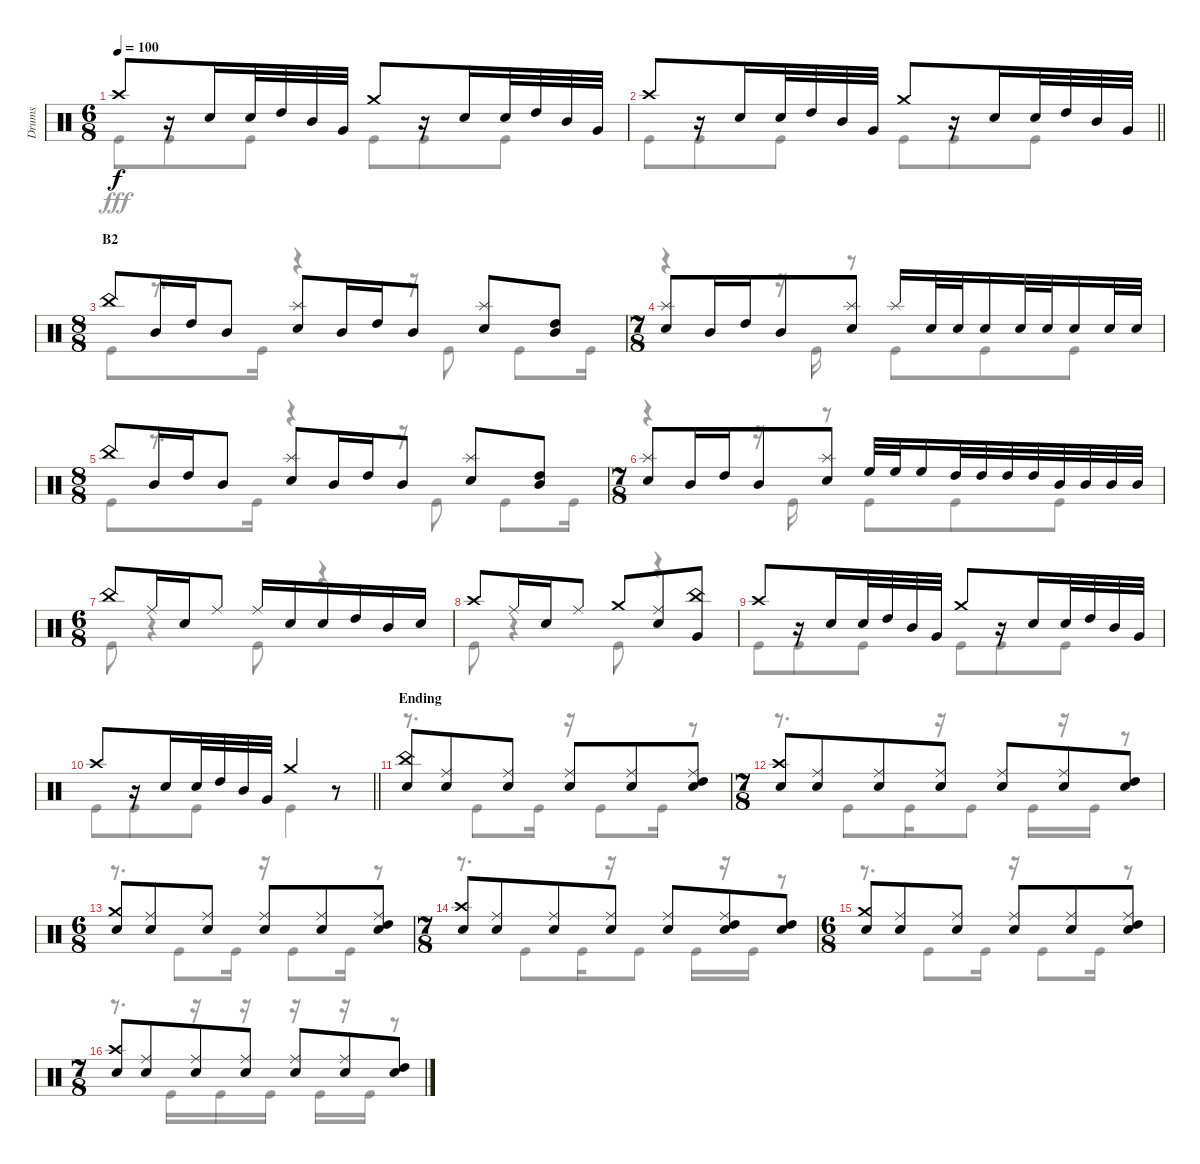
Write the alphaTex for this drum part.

\track ("Drums" "Drums") {instrument percussion}
\staff {score}
\articulation defaults
\voice
\ts (6 8)
\tempo 100
\clef neutral
\ks c "Crash high (hit)".8{dy f}
r.16 "Snare (hit) 2".16 "Snare (hit) 2".32 "High Tom (hit)".32 "Mid Tom (hit)".32 "Very Low Tom (hit)".32 "Crash medium (hit)".8 r.16 "Snare (hit) 2".16 "Snare (hit) 2".32 "High Tom (hit)".32 "Mid Tom (hit)".32 "Very Low Tom (hit)".32 |
\barLineRight lightlight "Crash high (hit)".8
r.16 "Snare (hit) 2".16 "Snare (hit) 2".32 "High Tom (hit)".32 "Mid Tom (hit)".32 "Very Low Tom (hit)".32 "Crash medium (hit)".8 r.16 "Snare (hit) 2".16 "Snare (hit) 2".32 "High Tom (hit)".32 "Mid Tom (hit)".32 "Very Low Tom (hit)".32 |
\ts (8 8)
\section ("" "B2")
"China (hit)".8 "Mid Tom (hit)".16 "High Tom (hit)".16 "Mid Tom (hit)".8 ("Splash (hit)" "Snare (hit) 2").8 "Mid Tom (hit)".16 "High Tom (hit)".16 "Mid Tom (hit)".8 ("Splash (hit)" "Snare (hit) 2").8 ("High Tom (hit)" "Mid Tom (hit)").8 |
\ts (7 8)
("Splash (hit)" "Snare (hit) 2").8 "Mid Tom (hit)".16 "High Tom (hit)".16 "Mid Tom (hit)".8 ("Splash (hit)" "Snare (hit) 2").8 "Splash (hit)".16 "Snare (hit) 2".32 "Snare (hit) 2".32 "Snare (hit) 2".16 "Snare (hit) 2".32 "Snare (hit) 2".32 "Snare (hit) 2".16 "Snare (hit) 2".32 "Snare (hit) 2".32 |
\ts (8 8)
"China (hit)".8 "Mid Tom (hit)".16 "High Tom (hit)".16 "Mid Tom (hit)".8 ("Splash (hit)" "Snare (hit) 2").8 "Mid Tom (hit)".16 "High Tom (hit)".16 "Mid Tom (hit)".8 ("Splash (hit)" "Snare (hit) 2").8 ("High Tom (hit)" "Mid Tom (hit)").8 |
\ts (7 8)
("Splash (hit)" "Snare (hit) 2").8 "Mid Tom (hit)".16 "High Tom (hit)".16 "Mid Tom (hit)".8 ("Splash (hit)" "Snare (hit) 2").8 "High Floor Tom (hit)".32 "High Floor Tom (hit)".32 "High Floor Tom (hit)".16 "High Tom (hit)".32 "High Tom (hit)".32 "High Tom (hit)".32 "High Tom (hit)".32 "Mid Tom (hit)".32 "Mid Tom (hit)".32 "Mid Tom (hit)".32 "Mid Tom (hit)".32 |
\ts (6 8)
"China (hit)".8 "Ride (middle)".16 "Snare (hit) 2".16 "Ride (middle)".8 "Ride (middle)".16 "Snare (hit) 2".16 "Snare (hit) 2".16 "High Tom (hit)".16 "Mid Tom (hit)".16 "Snare (hit) 2".16 |
"Crash high (hit)".8 "Ride (middle)".16 "Snare (hit) 2".16 "Ride (middle)".8 "Crash medium (hit)".8 ("Ride (middle)" "Snare (hit) 2").8 ("China (hit)" "Very Low Tom (hit)").8 |
"Crash high (hit)".8 r.16 "Snare (hit) 2".16 "Snare (hit) 2".32 "High Tom (hit)".32 "Mid Tom (hit)".32 "Very Low Tom (hit)".32 "Crash medium (hit)".8 r.16 "Snare (hit) 2".16 "Snare (hit) 2".32 "High Tom (hit)".32 "Mid Tom (hit)".32 "Very Low Tom (hit)".32 |
\barLineRight lightlight "Crash high (hit)".8
r.16 "Snare (hit) 2".16 "Snare (hit) 2".32 "High Tom (hit)".32 "Mid Tom (hit)".32 "Very Low Tom (hit)".32 "Crash medium (hit)".4 r.8 |
\section ("" "Ending")
("China (hit)" "Snare (hit) 2").8 ("Ride (middle)" "Snare (hit) 2").8 ("Ride (middle)" "Snare (hit) 2").8 ("Ride (middle)" "Snare (hit) 2").8 ("Ride (middle)" "Snare (hit) 2").8 ("Ride (middle)" "High Tom (hit)" "Snare (hit) 2").8 |
\ts (7 8)
("Crash high (hit)" "Snare (hit) 2").8 ("Ride (middle)" "Snare (hit) 2").8 ("Ride (middle)" "Snare (hit) 2").8 ("Ride (middle)" "Snare (hit) 2").8 ("Ride (middle)" "Snare (hit) 2").8 ("Ride (middle)" "Snare (hit) 2").8 ("High Tom (hit)" "Snare (hit) 2").8 |
\ts (6 8)
("Crash medium (hit)" "Snare (hit) 2").8 ("Ride (middle)" "Snare (hit) 2").8 ("Ride (middle)" "Snare (hit) 2").8 ("Ride (middle)" "Snare (hit) 2").8 ("Ride (middle)" "Snare (hit) 2").8 ("Ride (middle)" "High Tom (hit)" "Snare (hit) 2").8 |
\ts (7 8)
("Crash high (hit)" "Snare (hit) 2").8 ("Ride (middle)" "Snare (hit) 2").8 ("Ride (middle)" "Snare (hit) 2").8 ("Ride (middle)" "Snare (hit) 2").8 ("Ride (middle)" "Snare (hit) 2").8 ("Ride (middle)" "High Tom (hit)" "Snare (hit) 2").8 ("High Tom (hit)" "Snare (hit) 2").8 |
\ts (6 8)
("Crash medium (hit)" "Snare (hit) 2").8 ("Ride (middle)" "Snare (hit) 2").8 ("Ride (middle)" "Snare (hit) 2").8 ("Ride (middle)" "Snare (hit) 2").8 ("Ride (middle)" "Snare (hit) 2").8 ("Ride (middle)" "High Tom (hit)" "Snare (hit) 2").8 |
\ts (7 8)
("Crash high (hit)" "Snare (hit) 2").8 ("Ride (middle)" "Snare (hit) 2").8 ("Ride (middle)" "Snare (hit) 2").8 ("Ride (middle)" "Snare (hit) 2").8 ("Ride (middle)" "Snare (hit) 2").8 ("Ride (middle)" "Snare (hit) 2").8 ("High Tom (hit)" "Snare (hit) 2").8
\voice
\clef neutral
\ottava regular
\simile none
\ks c "Kick (hit)".8{dy fff} "Kick (hit)".8 "Kick (hit)".8 "Kick (hit)".8 "Kick (hit)".8 "Kick (hit)".8
|
\barLineRight lightlight "Kick (hit)".8 "Kick (hit)".8 "Kick (hit)".8 "Kick (hit)".8 "Kick (hit)".8 "Kick (hit)".8
|
"Kick (hit)".8 r.8{d} "Kick (hit)".16 r.4 r.16 "Kick (hit)".8 "Kick (hit)".8 "Kick (hit)".16 |
r.4 r.16 "Kick (hit)".16 r.8 "Kick (hit)".8 "Kick (hit)".8 "Kick (hit)".8 |
"Kick (hit)".8 r.8{d} "Kick (hit)".16 r.4 r.16 "Kick (hit)".8 "Kick (hit)".8 "Kick (hit)".16 |
r.4 r.16 "Kick (hit)".16 r.8 "Kick (hit)".8 "Kick (hit)".8 "Kick (hit)".8 |
"Kick (hit)".8 r.4 "Kick (hit)".8 r.4 |
"Kick (hit)".8 r.4 "Kick (hit)".8 r.4 |
"Kick (hit)".8 "Kick (hit)".8 "Kick (hit)".8 "Kick (hit)".8 "Kick (hit)".8 "Kick (hit)".8 |
\barLineRight lightlight "Kick (hit)".8 "Kick (hit)".8 "Kick (hit)".8 "Kick (hit)".4
r.8 |
r.8{d} "Kick (hit)".8 "Kick (hit)".16 r.16 "Kick (hit)".8 "Kick (hit)".16 r.8 |
r.8{d} "Kick (hit)".8 "Kick (hit)".16 r.16 "Kick (hit)".8 "Kick (hit)".16 r.16 "Kick (hit)".16 r.8 |
r.8{d} "Kick (hit)".8 "Kick (hit)".16 r.16 "Kick (hit)".8 "Kick (hit)".16 r.8 |
r.8{d} "Kick (hit)".8 "Kick (hit)".16 r.16 "Kick (hit)".8 "Kick (hit)".16 r.16 "Kick (hit)".16 r.8 |
r.8{d} "Kick (hit)".8 "Kick (hit)".16 r.16 "Kick (hit)".8 "Kick (hit)".16 r.8 |
r.8{d} "Kick (hit)".16 r.16 "Kick (hit)".16 r.16 "Kick (hit)".16 r.16 "Kick (hit)".16 r.16 "Kick (hit)".16 r.8
